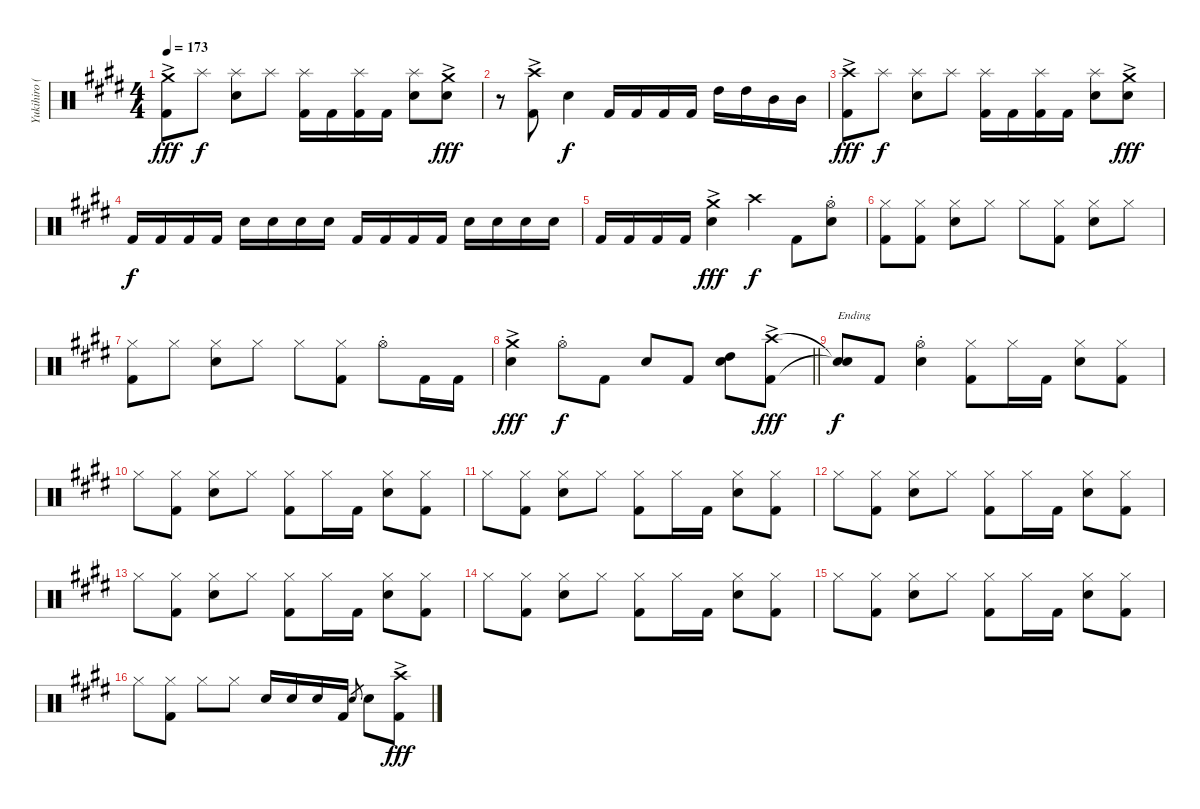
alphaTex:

\track ("Yukihiro (Drums)" "Yukihiro (") {instrument percussion}
\staff {score}
\articulation defaults
\ts (4 4)
\tempo 173
\clef neutral
\ks e
("Crash medium (hit)"{ac} "Kick (hit) 2").8{dy fff} "Splash (hit)".8{dy f} ("Splash (hit)" "Electric Snare (hit)").8 "Splash (hit)".8 ("Splash (hit)" "Kick (hit) 2").16 "Kick (hit) 2".16 ("Splash (hit)" "Kick (hit) 2").16 "Kick (hit) 2".16 ("Splash (hit)" "Electric Snare (hit)").8 ("Crash medium (hit)"{ac} "Electric Snare (hit)").8{dy fff} |
r.8 ("Crash high (hit)"{ac} "Kick (hit) 2").8 "Electric Snare (hit)".4{dy f} "Kick (hit) 2".16 "Kick (hit) 2".16 "Kick (hit) 2".16 "Kick (hit) 2".16 "High Tom (hit)".16 "High Tom (hit)".16 "Mid Tom (hit)".16 "Mid Tom (hit)".16 |
("Crash high (hit)"{ac} "Kick (hit) 2").8{dy fff} "Splash (hit)".8{dy f} ("Splash (hit)" "Electric Snare (hit)").8 "Splash (hit)".8 ("Splash (hit)" "Kick (hit) 2").16 "Kick (hit) 2".16 ("Splash (hit)" "Kick (hit) 2").16 "Kick (hit) 2".16 ("Splash (hit)" "Electric Snare (hit)").8 ("Crash medium (hit)"{ac} "Electric Snare (hit)").8{dy fff} |
"Kick (hit) 2".16{dy f} "Kick (hit) 2".16 "Kick (hit) 2".16 "Kick (hit) 2".16 "Electric Snare (hit)".16 "Electric Snare (hit)".16 "Electric Snare (hit)".16 "Electric Snare (hit)".16 "Kick (hit) 2".16 "Kick (hit) 2".16 "Kick (hit) 2".16 "Kick (hit) 2".16 "Electric Snare (hit)".16 "Electric Snare (hit)".16 "Electric Snare (hit)".16 "Electric Snare (hit)".16 |
"Kick (hit) 2".16 "Kick (hit) 2".16 "Kick (hit) 2".16 "Kick (hit) 2".16 ("Crash medium (hit)"{ac} "Electric Snare (hit)").4{dy fff} "Crash high (hit)".4{dy f} "Kick (hit) 2".8 ("Hi-Hat (open)"{st} "Electric Snare (hit)").8 |
("Hi-Hat (closed)" "Kick (hit) 2").8 ("Hi-Hat (closed)" "Kick (hit) 2").8 ("Hi-Hat (closed)" "Electric Snare (hit)").8 "Hi-Hat (closed)".8 "Hi-Hat (closed)".8 ("Hi-Hat (closed)" "Kick (hit) 2").8 ("Hi-Hat (closed)" "Electric Snare (hit)").8 "Hi-Hat (closed)".8 |
("Hi-Hat (closed)" "Kick (hit) 2").8 "Hi-Hat (closed)".8 ("Hi-Hat (closed)" "Electric Snare (hit)").8 "Hi-Hat (closed)".8 "Hi-Hat (closed)".8 ("Hi-Hat (closed)" "Kick (hit) 2").8 "Hi-Hat (open)"{st}.8 "Kick (hit) 2".16 "Kick (hit) 2".16 |
\barLineRight lightlight
("Crash medium (hit)"{ac} "Electric Snare (hit)").4{dy fff} "Hi-Hat (open)"{st}.8{dy f} "Kick (hit) 2".8 "Electric Snare (hit)".8 "Kick (hit) 2".8 ("Electric Snare (hit)" "High Tom (hit)").8 ("Crash high (hit)"{ac} "Kick (hit) 2").8{dy fff} |
("Snare (hit)"{t} "Snare (hit)"{t}).8{txt "Ending" dy f} "Kick (hit) 2".8 ("Hi-Hat (open)"{st} "Electric Snare (hit)").4 ("Hi-Hat (closed)" "Kick (hit) 2").8 "Hi-Hat (closed)".16 "Kick (hit) 2".16 ("Hi-Hat (closed)" "Electric Snare (hit)").8 ("Hi-Hat (closed)" "Kick (hit) 2").8 |
"Hi-Hat (closed)".8 ("Hi-Hat (closed)" "Kick (hit) 2").8 ("Hi-Hat (closed)" "Electric Snare (hit)").8 "Hi-Hat (closed)".8 ("Hi-Hat (closed)" "Kick (hit) 2").8 "Hi-Hat (closed)".16 "Kick (hit) 2".16 ("Hi-Hat (closed)" "Electric Snare (hit)").8 ("Hi-Hat (closed)" "Kick (hit) 2").8 |
"Hi-Hat (closed)".8 ("Hi-Hat (closed)" "Kick (hit) 2").8 ("Hi-Hat (closed)" "Electric Snare (hit)").8 "Hi-Hat (closed)".8 ("Hi-Hat (closed)" "Kick (hit) 2").8 "Hi-Hat (closed)".16 "Kick (hit) 2".16 ("Hi-Hat (closed)" "Electric Snare (hit)").8 ("Hi-Hat (closed)" "Kick (hit) 2").8 |
"Hi-Hat (closed)".8 ("Hi-Hat (closed)" "Kick (hit) 2").8 ("Hi-Hat (closed)" "Electric Snare (hit)").8 "Hi-Hat (closed)".8 ("Hi-Hat (closed)" "Kick (hit) 2").8 "Hi-Hat (closed)".16 "Kick (hit) 2".16 ("Hi-Hat (closed)" "Electric Snare (hit)").8 ("Hi-Hat (closed)" "Kick (hit) 2").8 |
"Hi-Hat (closed)".8 ("Hi-Hat (closed)" "Kick (hit) 2").8 ("Hi-Hat (closed)" "Electric Snare (hit)").8 "Hi-Hat (closed)".8 ("Hi-Hat (closed)" "Kick (hit) 2").8 "Hi-Hat (closed)".16 "Kick (hit) 2".16 ("Hi-Hat (closed)" "Electric Snare (hit)").8 ("Hi-Hat (closed)" "Kick (hit) 2").8 |
"Hi-Hat (closed)".8 ("Hi-Hat (closed)" "Kick (hit) 2").8 ("Hi-Hat (closed)" "Electric Snare (hit)").8 "Hi-Hat (closed)".8 ("Hi-Hat (closed)" "Kick (hit) 2").8 "Hi-Hat (closed)".16 "Kick (hit) 2".16 ("Hi-Hat (closed)" "Electric Snare (hit)").8 ("Hi-Hat (closed)" "Kick (hit) 2").8 |
"Hi-Hat (closed)".8 ("Hi-Hat (closed)" "Kick (hit) 2").8 ("Hi-Hat (closed)" "Electric Snare (hit)").8 "Hi-Hat (closed)".8 ("Hi-Hat (closed)" "Kick (hit) 2").8 "Hi-Hat (closed)".16 "Kick (hit) 2".16 ("Hi-Hat (closed)" "Electric Snare (hit)").8 ("Hi-Hat (closed)" "Kick (hit) 2").8 |
"Hi-Hat (closed)".8 ("Hi-Hat (closed)" "Kick (hit) 2").8 "Hi-Hat (closed)".8 "Hi-Hat (closed)".8 "Electric Snare (hit)".16 "Electric Snare (hit)".16 "Electric Snare (hit)".16 "Kick (hit) 2".16 "Electric Snare (hit)".8{gr} "Electric Snare (hit)".8 ("Crash high (hit)"{ac} "Kick (hit) 2").8{dy fff}
